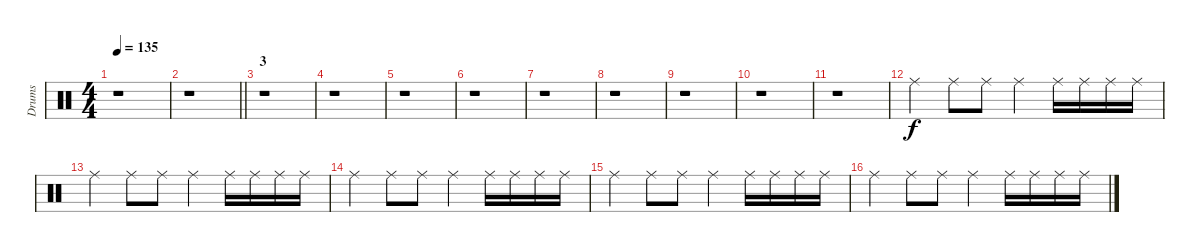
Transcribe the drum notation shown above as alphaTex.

\track ("Drums" "Drums") {instrument percussion}
\staff {score}
\articulation defaults
\ts (4 4)
\tempo 135
\clef neutral
\ks c
r.1{dy f} |
\barLineRight lightlight
r.1 |
\section ("" "3")
r.1 |
r.1 |
r.1 |
r.1 |
r.1 |
r.1 |
r.1 |
r.1 |
r.1 |
"Ride (middle)".4 "Ride (middle)".8 "Ride (middle)".8 "Ride (middle)".4 "Ride (middle)".16 "Ride (middle)".16 "Ride (middle)".16 "Ride (middle)".16 |
"Ride (middle)".4 "Ride (middle)".8 "Ride (middle)".8 "Ride (middle)".4 "Ride (middle)".16 "Ride (middle)".16 "Ride (middle)".16 "Ride (middle)".16 |
"Ride (middle)".4 "Ride (middle)".8 "Ride (middle)".8 "Ride (middle)".4 "Ride (middle)".16 "Ride (middle)".16 "Ride (middle)".16 "Ride (middle)".16 |
"Ride (middle)".4 "Ride (middle)".8 "Ride (middle)".8 "Ride (middle)".4 "Ride (middle)".16 "Ride (middle)".16 "Ride (middle)".16 "Ride (middle)".16 |
"Ride (middle)".4 "Ride (middle)".8 "Ride (middle)".8 "Ride (middle)".4 "Ride (middle)".16 "Ride (middle)".16 "Ride (middle)".16 "Ride (middle)".16
